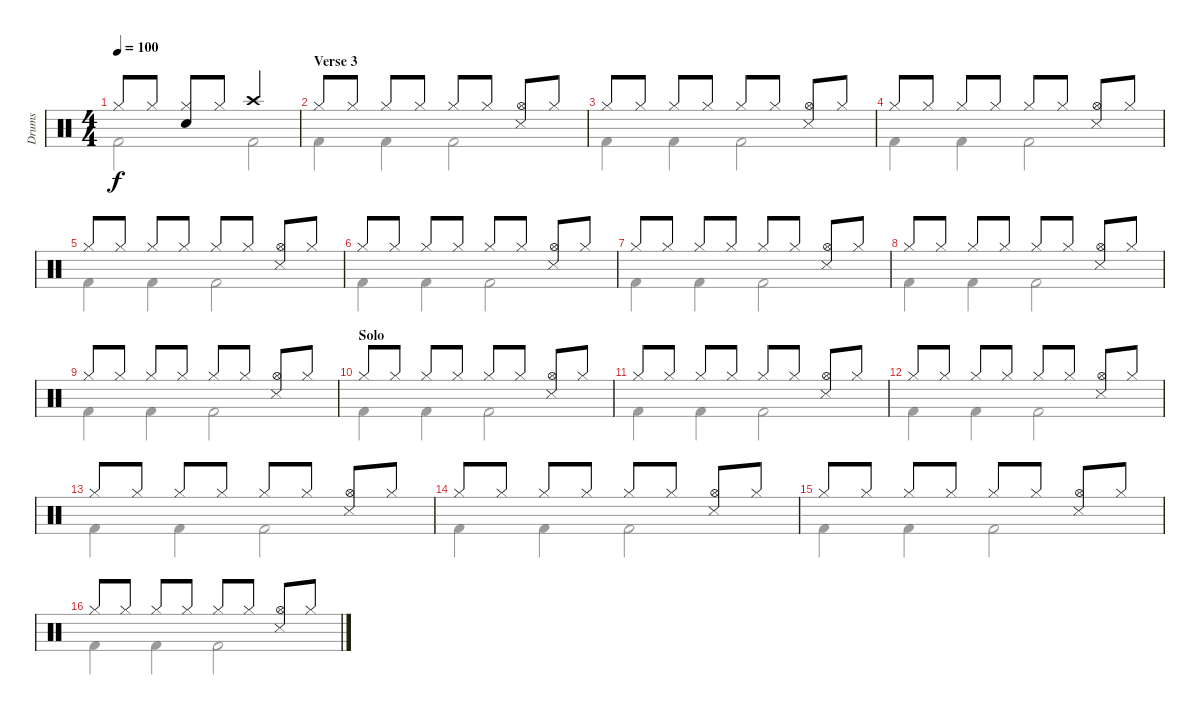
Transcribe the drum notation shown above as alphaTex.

\track ("Drums" "Drums") {instrument percussion}
\staff {score}
\articulation defaults
\voice
\ts (4 4)
\tempo 100
\clef neutral
\ks c "Hi-Hat (closed)".8{dy f} "Hi-Hat (closed)".8
("Hi-Hat (closed)" "Snare (hit) 2").8 "Hi-Hat (closed)".8 "Crash high (hit)".2 |
\section ("" "Verse 3")
"Hi-Hat (closed)".8 "Hi-Hat (closed)".8 "Hi-Hat (closed)".8 "Hi-Hat (closed)".8 "Hi-Hat (closed)".8 "Hi-Hat (closed)".8 ("Hi-Hat (open)" "Snare (side stick) 3").8 "Hi-Hat (closed)".8 |
"Hi-Hat (closed)".8 "Hi-Hat (closed)".8 "Hi-Hat (closed)".8 "Hi-Hat (closed)".8 "Hi-Hat (closed)".8 "Hi-Hat (closed)".8 ("Hi-Hat (open)" "Snare (side stick) 3").8 "Hi-Hat (closed)".8 |
"Hi-Hat (closed)".8 "Hi-Hat (closed)".8 "Hi-Hat (closed)".8 "Hi-Hat (closed)".8 "Hi-Hat (closed)".8 "Hi-Hat (closed)".8 ("Hi-Hat (open)" "Snare (side stick) 3").8 "Hi-Hat (closed)".8 |
"Hi-Hat (closed)".8 "Hi-Hat (closed)".8 "Hi-Hat (closed)".8 "Hi-Hat (closed)".8 "Hi-Hat (closed)".8 "Hi-Hat (closed)".8 ("Hi-Hat (open)" "Snare (side stick) 3").8 "Hi-Hat (closed)".8 |
"Hi-Hat (closed)".8 "Hi-Hat (closed)".8 "Hi-Hat (closed)".8 "Hi-Hat (closed)".8 "Hi-Hat (closed)".8 "Hi-Hat (closed)".8 ("Hi-Hat (open)" "Snare (side stick) 3").8 "Hi-Hat (closed)".8 |
"Hi-Hat (closed)".8 "Hi-Hat (closed)".8 "Hi-Hat (closed)".8 "Hi-Hat (closed)".8 "Hi-Hat (closed)".8 "Hi-Hat (closed)".8 ("Hi-Hat (open)" "Snare (side stick) 3").8 "Hi-Hat (closed)".8 |
"Hi-Hat (closed)".8 "Hi-Hat (closed)".8 "Hi-Hat (closed)".8 "Hi-Hat (closed)".8 "Hi-Hat (closed)".8 "Hi-Hat (closed)".8 ("Hi-Hat (open)" "Snare (side stick) 3").8 "Hi-Hat (closed)".8 |
"Hi-Hat (closed)".8 "Hi-Hat (closed)".8 "Hi-Hat (closed)".8 "Hi-Hat (closed)".8 "Hi-Hat (closed)".8 "Hi-Hat (closed)".8 ("Hi-Hat (open)" "Snare (side stick) 3").8 "Hi-Hat (closed)".8 |
\section ("" "Solo")
"Hi-Hat (closed)".8 "Hi-Hat (closed)".8 "Hi-Hat (closed)".8 "Hi-Hat (closed)".8 "Hi-Hat (closed)".8 "Hi-Hat (closed)".8 ("Hi-Hat (open)" "Snare (side stick) 3").8 "Hi-Hat (closed)".8 |
"Hi-Hat (closed)".8 "Hi-Hat (closed)".8 "Hi-Hat (closed)".8 "Hi-Hat (closed)".8 "Hi-Hat (closed)".8 "Hi-Hat (closed)".8 ("Hi-Hat (open)" "Snare (side stick) 3").8 "Hi-Hat (closed)".8 |
"Hi-Hat (closed)".8 "Hi-Hat (closed)".8 "Hi-Hat (closed)".8 "Hi-Hat (closed)".8 "Hi-Hat (closed)".8 "Hi-Hat (closed)".8 ("Hi-Hat (open)" "Snare (side stick) 3").8 "Hi-Hat (closed)".8 |
"Hi-Hat (closed)".8 "Hi-Hat (closed)".8 "Hi-Hat (closed)".8 "Hi-Hat (closed)".8 "Hi-Hat (closed)".8 "Hi-Hat (closed)".8 ("Hi-Hat (open)" "Snare (side stick) 3").8 "Hi-Hat (closed)".8 |
"Hi-Hat (closed)".8 "Hi-Hat (closed)".8 "Hi-Hat (closed)".8 "Hi-Hat (closed)".8 "Hi-Hat (closed)".8 "Hi-Hat (closed)".8 ("Hi-Hat (open)" "Snare (side stick) 3").8 "Hi-Hat (closed)".8 |
"Hi-Hat (closed)".8 "Hi-Hat (closed)".8 "Hi-Hat (closed)".8 "Hi-Hat (closed)".8 "Hi-Hat (closed)".8 "Hi-Hat (closed)".8 ("Hi-Hat (open)" "Snare (side stick) 3").8 "Hi-Hat (closed)".8 |
"Hi-Hat (closed)".8 "Hi-Hat (closed)".8 "Hi-Hat (closed)".8 "Hi-Hat (closed)".8 "Hi-Hat (closed)".8 "Hi-Hat (closed)".8 ("Hi-Hat (open)" "Snare (side stick) 3").8 "Hi-Hat (closed)".8
\voice
\clef neutral
\ottava regular
\simile none
\ks c "Kick (hit) 2".2{dy f} "Kick (hit) 2".2
|
"Kick (hit) 2".4 "Kick (hit) 2".4 "Kick (hit) 2".2 |
"Kick (hit) 2".4 "Kick (hit) 2".4 "Kick (hit) 2".2 |
"Kick (hit) 2".4 "Kick (hit) 2".4 "Kick (hit) 2".2 |
"Kick (hit) 2".4 "Kick (hit) 2".4 "Kick (hit) 2".2 |
"Kick (hit) 2".4 "Kick (hit) 2".4 "Kick (hit) 2".2 |
"Kick (hit) 2".4 "Kick (hit) 2".4 "Kick (hit) 2".2 |
"Kick (hit) 2".4 "Kick (hit) 2".4 "Kick (hit) 2".2 |
"Kick (hit) 2".4 "Kick (hit) 2".4 "Kick (hit) 2".2 |
"Kick (hit) 2".4 "Kick (hit) 2".4 "Kick (hit) 2".2 |
"Kick (hit) 2".4 "Kick (hit) 2".4 "Kick (hit) 2".2 |
"Kick (hit) 2".4 "Kick (hit) 2".4 "Kick (hit) 2".2 |
"Kick (hit) 2".4 "Kick (hit) 2".4 "Kick (hit) 2".2 |
"Kick (hit) 2".4 "Kick (hit) 2".4 "Kick (hit) 2".2 |
"Kick (hit) 2".4 "Kick (hit) 2".4 "Kick (hit) 2".2 |
"Kick (hit) 2".4 "Kick (hit) 2".4 "Kick (hit) 2".2
